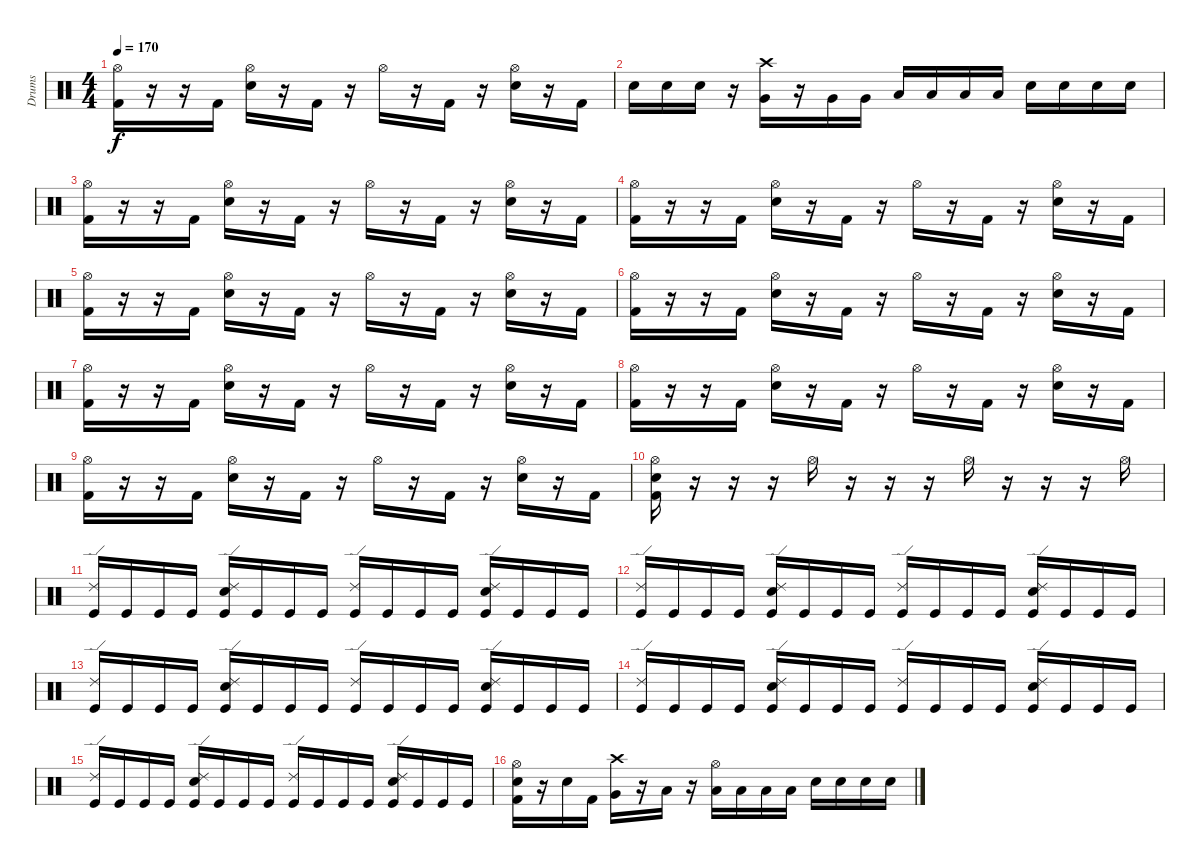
\track ("Drums" "Drums") {instrument percussion}
\staff {score}
\articulation defaults
\ts (4 4)
\tempo 170
\clef neutral
\ks c
("Hi-Hat (open)" "Kick (hit) 2").16{dy f} r.16 r.16 "Kick (hit) 2".16 ("Hi-Hat (open)" "Electric Snare (hit)").16 r.16 "Kick (hit) 2".16 r.16 "Hi-Hat (open)".16 r.16 "Kick (hit) 2".16 r.16 ("Hi-Hat (open)" "Electric Snare (hit)").16 r.16 "Kick (hit) 2".16 |
"Electric Snare (hit)".16 "Electric Snare (hit)".16 "Electric Snare (hit)".16 r.16 ("Crash high (hit)" "Very Low Tom (hit)").16 r.16 "Very Low Tom (hit)".16 "Very Low Tom (hit)".16 "Low Tom (hit)".16 "Low Tom (hit)".16 "Low Tom (hit)".16 "Low Tom (hit)".16 "Electric Snare (hit)".16 "Electric Snare (hit)".16 "Electric Snare (hit)".16 "Electric Snare (hit)".16 |
("Hi-Hat (open)" "Kick (hit) 2").16 r.16 r.16 "Kick (hit) 2".16 ("Hi-Hat (open)" "Electric Snare (hit)").16 r.16 "Kick (hit) 2".16 r.16 "Hi-Hat (open)".16 r.16 "Kick (hit) 2".16 r.16 ("Hi-Hat (open)" "Electric Snare (hit)").16 r.16 "Kick (hit) 2".16 |
("Hi-Hat (open)" "Kick (hit) 2").16 r.16 r.16 "Kick (hit) 2".16 ("Hi-Hat (open)" "Electric Snare (hit)").16 r.16 "Kick (hit) 2".16 r.16 "Hi-Hat (open)".16 r.16 "Kick (hit) 2".16 r.16 ("Hi-Hat (open)" "Electric Snare (hit)").16 r.16 "Kick (hit) 2".16 |
("Hi-Hat (open)" "Kick (hit) 2").16 r.16 r.16 "Kick (hit) 2".16 ("Hi-Hat (open)" "Electric Snare (hit)").16 r.16 "Kick (hit) 2".16 r.16 "Hi-Hat (open)".16 r.16 "Kick (hit) 2".16 r.16 ("Hi-Hat (open)" "Electric Snare (hit)").16 r.16 "Kick (hit) 2".16 |
("Hi-Hat (open)" "Kick (hit) 2").16 r.16 r.16 "Kick (hit) 2".16 ("Hi-Hat (open)" "Electric Snare (hit)").16 r.16 "Kick (hit) 2".16 r.16 "Hi-Hat (open)".16 r.16 "Kick (hit) 2".16 r.16 ("Hi-Hat (open)" "Electric Snare (hit)").16 r.16 "Kick (hit) 2".16 |
("Hi-Hat (open)" "Kick (hit) 2").16 r.16 r.16 "Kick (hit) 2".16 ("Hi-Hat (open)" "Electric Snare (hit)").16 r.16 "Kick (hit) 2".16 r.16 "Hi-Hat (open)".16 r.16 "Kick (hit) 2".16 r.16 ("Hi-Hat (open)" "Electric Snare (hit)").16 r.16 "Kick (hit) 2".16 |
("Hi-Hat (open)" "Kick (hit) 2").16 r.16 r.16 "Kick (hit) 2".16 ("Hi-Hat (open)" "Electric Snare (hit)").16 r.16 "Kick (hit) 2".16 r.16 "Hi-Hat (open)".16 r.16 "Kick (hit) 2".16 r.16 ("Hi-Hat (open)" "Electric Snare (hit)").16 r.16 "Kick (hit) 2".16 |
("Hi-Hat (open)" "Kick (hit) 2").16 r.16 r.16 "Kick (hit) 2".16 ("Hi-Hat (open)" "Electric Snare (hit)").16 r.16 "Kick (hit) 2".16 r.16 "Hi-Hat (open)".16 r.16 "Kick (hit) 2".16 r.16 ("Hi-Hat (open)" "Electric Snare (hit)").16 r.16 "Kick (hit) 2".16 |
("Hi-Hat (open)" "Electric Snare (hit)" "Kick (hit) 2").16 r.16 r.16 r.16 "Hi-Hat (open)".16 r.16 r.16 r.16 "Hi-Hat (open)".16 r.16 r.16 r.16 "Hi-Hat (open)".16 |
("Ride (edge) 2" "Kick (hit)").16 "Kick (hit)".16 "Kick (hit)".16 "Kick (hit)".16 ("Ride (edge) 2" "Electric Snare (hit)" "Kick (hit)").16 "Kick (hit)".16 "Kick (hit)".16 "Kick (hit)".16 ("Ride (edge) 2" "Kick (hit)").16 "Kick (hit)".16 "Kick (hit)".16 "Kick (hit)".16 ("Ride (edge) 2" "Electric Snare (hit)" "Kick (hit)").16 "Kick (hit)".16 "Kick (hit)".16 "Kick (hit)".16 |
("Ride (edge) 2" "Kick (hit)").16 "Kick (hit)".16 "Kick (hit)".16 "Kick (hit)".16 ("Ride (edge) 2" "Electric Snare (hit)" "Kick (hit)").16 "Kick (hit)".16 "Kick (hit)".16 "Kick (hit)".16 ("Ride (edge) 2" "Kick (hit)").16 "Kick (hit)".16 "Kick (hit)".16 "Kick (hit)".16 ("Ride (edge) 2" "Electric Snare (hit)" "Kick (hit)").16 "Kick (hit)".16 "Kick (hit)".16 "Kick (hit)".16 |
("Ride (edge) 2" "Kick (hit)").16 "Kick (hit)".16 "Kick (hit)".16 "Kick (hit)".16 ("Ride (edge) 2" "Electric Snare (hit)" "Kick (hit)").16 "Kick (hit)".16 "Kick (hit)".16 "Kick (hit)".16 ("Ride (edge) 2" "Kick (hit)").16 "Kick (hit)".16 "Kick (hit)".16 "Kick (hit)".16 ("Ride (edge) 2" "Electric Snare (hit)" "Kick (hit)").16 "Kick (hit)".16 "Kick (hit)".16 "Kick (hit)".16 |
("Ride (edge) 2" "Kick (hit)").16 "Kick (hit)".16 "Kick (hit)".16 "Kick (hit)".16 ("Ride (edge) 2" "Electric Snare (hit)" "Kick (hit)").16 "Kick (hit)".16 "Kick (hit)".16 "Kick (hit)".16 ("Ride (edge) 2" "Kick (hit)").16 "Kick (hit)".16 "Kick (hit)".16 "Kick (hit)".16 ("Ride (edge) 2" "Electric Snare (hit)" "Kick (hit)").16 "Kick (hit)".16 "Kick (hit)".16 "Kick (hit)".16 |
("Ride (edge) 2" "Kick (hit)").16 "Kick (hit)".16 "Kick (hit)".16 "Kick (hit)".16 ("Ride (edge) 2" "Electric Snare (hit)" "Kick (hit)").16 "Kick (hit)".16 "Kick (hit)".16 "Kick (hit)".16 ("Ride (edge) 2" "Kick (hit)").16 "Kick (hit)".16 "Kick (hit)".16 "Kick (hit)".16 ("Ride (edge) 2" "Electric Snare (hit)" "Kick (hit)").16 "Kick (hit)".16 "Kick (hit)".16 "Kick (hit)".16 |
("Hi-Hat (open)" "Electric Snare (hit)" "Kick (hit) 2").16 r.16 "Electric Snare (hit)".16 "Kick (hit) 2".16 ("Crash high (hit)" "Very Low Tom (hit)").16 r.16 "Low Tom (hit)".16 r.16 ("Hi-Hat (open)" "Low Tom (hit)").16 "Low Tom (hit)".16 "Low Tom (hit)".16 "Low Tom (hit)".16 "Electric Snare (hit)".16 "Electric Snare (hit)".16 "Electric Snare (hit)".16 "Electric Snare (hit)".16
